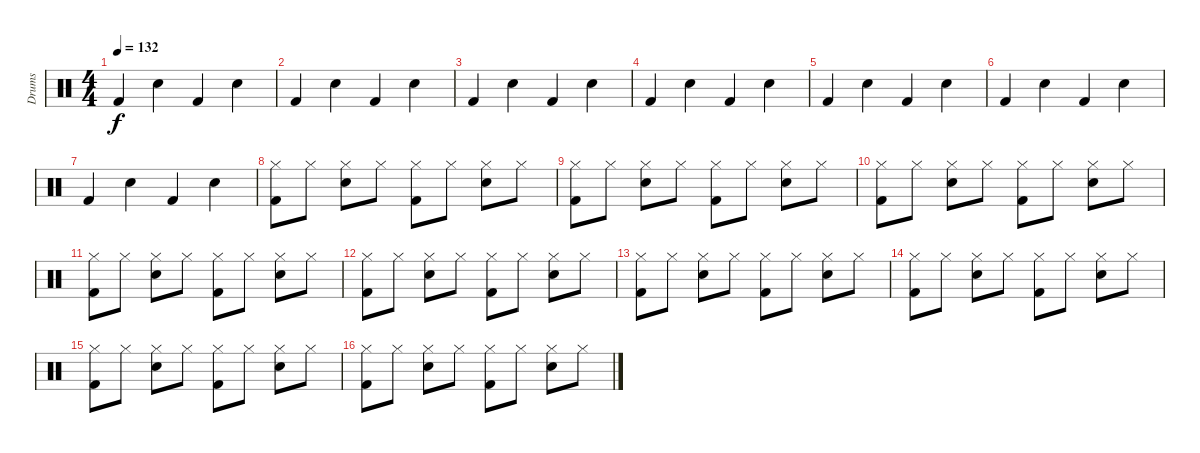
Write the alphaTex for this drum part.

\track ("Drums" "Drums") {instrument percussion}
\staff {score}
\articulation defaults
\ts (4 4)
\tempo 132
\clef neutral
\ks c "Kick (hit) 2".4{dy f} "Electric Snare (hit)".4 "Kick (hit) 2".4 "Electric Snare (hit)".4
|
"Kick (hit) 2".4 "Electric Snare (hit)".4 "Kick (hit) 2".4 "Electric Snare (hit)".4 |
"Kick (hit) 2".4 "Electric Snare (hit)".4 "Kick (hit) 2".4 "Electric Snare (hit)".4 |
"Kick (hit) 2".4 "Electric Snare (hit)".4 "Kick (hit) 2".4 "Electric Snare (hit)".4 |
"Kick (hit) 2".4 "Electric Snare (hit)".4 "Kick (hit) 2".4 "Electric Snare (hit)".4 |
"Kick (hit) 2".4 "Electric Snare (hit)".4 "Kick (hit) 2".4 "Electric Snare (hit)".4 |
"Kick (hit) 2".4 "Electric Snare (hit)".4 "Kick (hit) 2".4 "Electric Snare (hit)".4 |
("Kick (hit) 2" "Hi-Hat (closed)").8 "Hi-Hat (closed)".8 ("Electric Snare (hit)" "Hi-Hat (closed)").8 "Hi-Hat (closed)".8 ("Kick (hit) 2" "Hi-Hat (closed)").8 "Hi-Hat (closed)".8 ("Electric Snare (hit)" "Hi-Hat (closed)").8 "Hi-Hat (closed)".8 |
("Kick (hit) 2" "Hi-Hat (closed)").8 "Hi-Hat (closed)".8 ("Electric Snare (hit)" "Hi-Hat (closed)").8 "Hi-Hat (closed)".8 ("Kick (hit) 2" "Hi-Hat (closed)").8 "Hi-Hat (closed)".8 ("Electric Snare (hit)" "Hi-Hat (closed)").8 "Hi-Hat (closed)".8 |
("Kick (hit) 2" "Hi-Hat (closed)").8 "Hi-Hat (closed)".8 ("Electric Snare (hit)" "Hi-Hat (closed)").8 "Hi-Hat (closed)".8 ("Kick (hit) 2" "Hi-Hat (closed)").8 "Hi-Hat (closed)".8 ("Electric Snare (hit)" "Hi-Hat (closed)").8 "Hi-Hat (closed)".8 |
("Kick (hit) 2" "Hi-Hat (closed)").8 "Hi-Hat (closed)".8 ("Electric Snare (hit)" "Hi-Hat (closed)").8 "Hi-Hat (closed)".8 ("Kick (hit) 2" "Hi-Hat (closed)").8 "Hi-Hat (closed)".8 ("Electric Snare (hit)" "Hi-Hat (closed)").8 "Hi-Hat (closed)".8 |
("Kick (hit) 2" "Hi-Hat (closed)").8 "Hi-Hat (closed)".8 ("Electric Snare (hit)" "Hi-Hat (closed)").8 "Hi-Hat (closed)".8 ("Kick (hit) 2" "Hi-Hat (closed)").8 "Hi-Hat (closed)".8 ("Electric Snare (hit)" "Hi-Hat (closed)").8 "Hi-Hat (closed)".8 |
("Kick (hit) 2" "Hi-Hat (closed)").8 "Hi-Hat (closed)".8 ("Electric Snare (hit)" "Hi-Hat (closed)").8 "Hi-Hat (closed)".8 ("Kick (hit) 2" "Hi-Hat (closed)").8 "Hi-Hat (closed)".8 ("Electric Snare (hit)" "Hi-Hat (closed)").8 "Hi-Hat (closed)".8 |
("Kick (hit) 2" "Hi-Hat (closed)").8 "Hi-Hat (closed)".8 ("Electric Snare (hit)" "Hi-Hat (closed)").8 "Hi-Hat (closed)".8 ("Kick (hit) 2" "Hi-Hat (closed)").8 "Hi-Hat (closed)".8 ("Electric Snare (hit)" "Hi-Hat (closed)").8 "Hi-Hat (closed)".8 |
("Kick (hit) 2" "Hi-Hat (closed)").8 "Hi-Hat (closed)".8 ("Electric Snare (hit)" "Hi-Hat (closed)").8 "Hi-Hat (closed)".8 ("Kick (hit) 2" "Hi-Hat (closed)").8 "Hi-Hat (closed)".8 ("Electric Snare (hit)" "Hi-Hat (closed)").8 "Hi-Hat (closed)".8 |
("Kick (hit) 2" "Hi-Hat (closed)").8 "Hi-Hat (closed)".8 ("Electric Snare (hit)" "Hi-Hat (closed)").8 "Hi-Hat (closed)".8 ("Kick (hit) 2" "Hi-Hat (closed)").8 "Hi-Hat (closed)".8 ("Electric Snare (hit)" "Hi-Hat (closed)").8 "Hi-Hat (closed)".8
